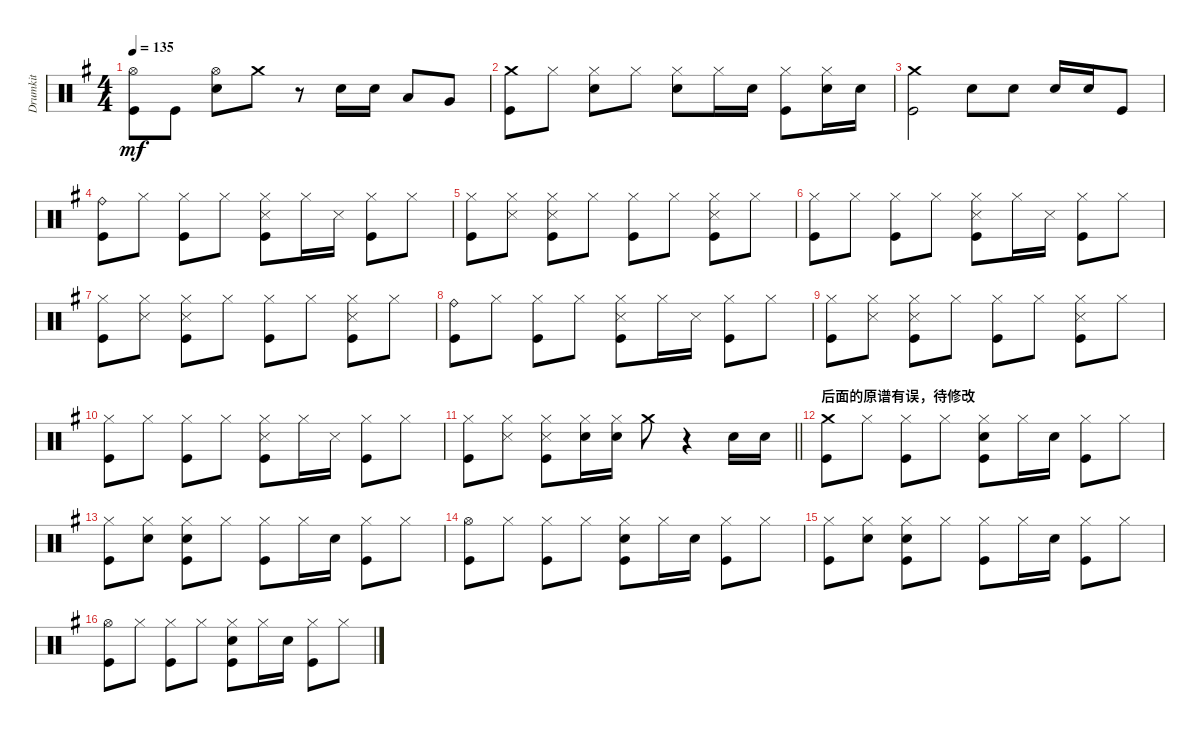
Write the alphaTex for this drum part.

\track ("Drumkit" "Drumkit") {instrument percussion}
\staff {score}
\articulation defaults
\ts (4 4)
\tempo 135
\clef neutral
\ks g
("Kick (hit)" "Hi-Hat (open)").8{dy mf} "Kick (hit)".8 ("Snare (hit) 2" "Hi-Hat (open)").8 "Crash medium (hit)".8 r.8 "Snare (hit) 2".16 "Snare (hit) 2".16 "Low Tom (hit)".8 "Very Low Tom (hit)".8 |
("Crash medium (hit)" "Kick (hit)").8 "Hi-Hat (closed)".8 ("Hi-Hat (closed)" "Snare (hit) 2").8 "Hi-Hat (closed)".8 ("Hi-Hat (closed)" "Snare (hit) 2").8 "Hi-Hat (closed)".16 "Snare (hit) 2".16 ("Hi-Hat (closed)" "Kick (hit)").8 ("Hi-Hat (closed)" "Snare (hit) 2").16 "Snare (hit) 2".16 |
("Crash medium (hit)" "Kick (hit)").2 "Snare (hit) 2".8 "Snare (hit) 2".8 "Snare (hit) 2".16 "Snare (hit) 2".16 "Kick (hit)".8 |
("Kick (hit)" "Ride (bell)").8 "Hi-Hat (closed)".8 ("Hi-Hat (closed)" "Kick (hit)").8 "Hi-Hat (closed)".8 ("Hi-Hat (closed)" "Kick (hit)" "Snare (side stick) 3").8 "Hi-Hat (closed)".16 "Snare (side stick) 3".16 ("Hi-Hat (closed)" "Kick (hit)").8 "Hi-Hat (closed)".8 |
("Hi-Hat (closed)" "Kick (hit)").8 ("Hi-Hat (closed)" "Snare (side stick) 3").8 ("Hi-Hat (closed)" "Kick (hit)" "Snare (side stick) 3").8 "Hi-Hat (closed)".8 ("Hi-Hat (closed)" "Kick (hit)").8 "Hi-Hat (closed)".8 ("Hi-Hat (closed)" "Kick (hit)" "Snare (side stick) 3").8 "Hi-Hat (closed)".8 |
("Kick (hit)" "Hi-Hat (closed)").8 "Hi-Hat (closed)".8 ("Hi-Hat (closed)" "Kick (hit)").8 "Hi-Hat (closed)".8 ("Hi-Hat (closed)" "Kick (hit)" "Snare (side stick) 3").8 "Hi-Hat (closed)".16 "Snare (side stick) 3".16 ("Hi-Hat (closed)" "Kick (hit)").8 "Hi-Hat (closed)".8 |
("Hi-Hat (closed)" "Kick (hit)").8 ("Hi-Hat (closed)" "Snare (side stick) 3").8 ("Hi-Hat (closed)" "Kick (hit)" "Snare (side stick) 3").8 "Hi-Hat (closed)".8 ("Hi-Hat (closed)" "Kick (hit)").8 "Hi-Hat (closed)".8 ("Hi-Hat (closed)" "Kick (hit)" "Snare (side stick) 3").8 "Hi-Hat (closed)".8 |
("Kick (hit)" "Ride (bell)").8 "Hi-Hat (closed)".8 ("Hi-Hat (closed)" "Kick (hit)").8 "Hi-Hat (closed)".8 ("Hi-Hat (closed)" "Kick (hit)" "Snare (side stick) 3").8 "Hi-Hat (closed)".16 "Snare (side stick) 3".16 ("Hi-Hat (closed)" "Kick (hit)").8 "Hi-Hat (closed)".8 |
("Hi-Hat (closed)" "Kick (hit)").8 ("Hi-Hat (closed)" "Snare (side stick) 3").8 ("Hi-Hat (closed)" "Kick (hit)" "Snare (side stick) 3").8 "Hi-Hat (closed)".8 ("Hi-Hat (closed)" "Kick (hit)").8 "Hi-Hat (closed)".8 ("Hi-Hat (closed)" "Kick (hit)" "Snare (side stick) 3").8 "Hi-Hat (closed)".8 |
("Kick (hit)" "Hi-Hat (closed)").8 "Hi-Hat (closed)".8 ("Hi-Hat (closed)" "Kick (hit)").8 "Hi-Hat (closed)".8 ("Hi-Hat (closed)" "Kick (hit)" "Snare (side stick) 3").8 "Hi-Hat (closed)".16 "Snare (side stick) 3".16 ("Hi-Hat (closed)" "Kick (hit)").8 "Hi-Hat (closed)".8 |
\barLineRight lightlight
("Hi-Hat (closed)" "Kick (hit)").8 ("Hi-Hat (closed)" "Snare (side stick) 3").8 ("Hi-Hat (closed)" "Kick (hit)" "Snare (side stick) 3").8 ("Hi-Hat (closed)" "Snare (hit) 2").16 ("Hi-Hat (closed)" "Snare (hit) 2").16 "Crash medium (hit)".8 r.4 "Snare (hit) 2".16 "Snare (hit) 2".16 |
\section ("" "后面的原谱有误，待修改")
("Kick (hit)" "Crash medium (hit)").8{volume 0} "Hi-Hat (closed)".8 ("Hi-Hat (closed)" "Kick (hit)").8 "Hi-Hat (closed)".8 ("Hi-Hat (closed)" "Kick (hit)" "Snare (hit) 2").8 "Hi-Hat (closed)".16 "Snare (hit) 2".16 ("Hi-Hat (closed)" "Kick (hit)").8 "Hi-Hat (closed)".8 |
("Hi-Hat (closed)" "Kick (hit)").8 ("Hi-Hat (closed)" "Snare (hit) 2").8 ("Hi-Hat (closed)" "Kick (hit)" "Snare (hit) 2").8 "Hi-Hat (closed)".8 ("Hi-Hat (closed)" "Kick (hit)").8 "Hi-Hat (closed)".16 "Snare (hit) 2".16 ("Hi-Hat (closed)" "Kick (hit)").8 "Hi-Hat (closed)".8 |
("Kick (hit)" "Hi-Hat (open)").8 "Hi-Hat (closed)".8 ("Hi-Hat (closed)" "Kick (hit)").8 "Hi-Hat (closed)".8 ("Hi-Hat (closed)" "Kick (hit)" "Snare (hit) 2").8 "Hi-Hat (closed)".16 "Snare (hit) 2".16 ("Hi-Hat (closed)" "Kick (hit)").8 "Hi-Hat (closed)".8 |
("Hi-Hat (closed)" "Kick (hit)").8 ("Hi-Hat (closed)" "Snare (hit) 2").8 ("Hi-Hat (closed)" "Kick (hit)" "Snare (hit) 2").8 "Hi-Hat (closed)".8 ("Hi-Hat (closed)" "Kick (hit)").8 "Hi-Hat (closed)".16 "Snare (hit) 2".16 ("Hi-Hat (closed)" "Kick (hit)").8 "Hi-Hat (closed)".8 |
("Kick (hit)" "Hi-Hat (open)").8 "Hi-Hat (closed)".8 ("Hi-Hat (closed)" "Kick (hit)").8 "Hi-Hat (closed)".8 ("Hi-Hat (closed)" "Kick (hit)" "Snare (hit) 2").8 "Hi-Hat (closed)".16 "Snare (hit) 2".16 ("Hi-Hat (closed)" "Kick (hit)").8 "Hi-Hat (closed)".8
